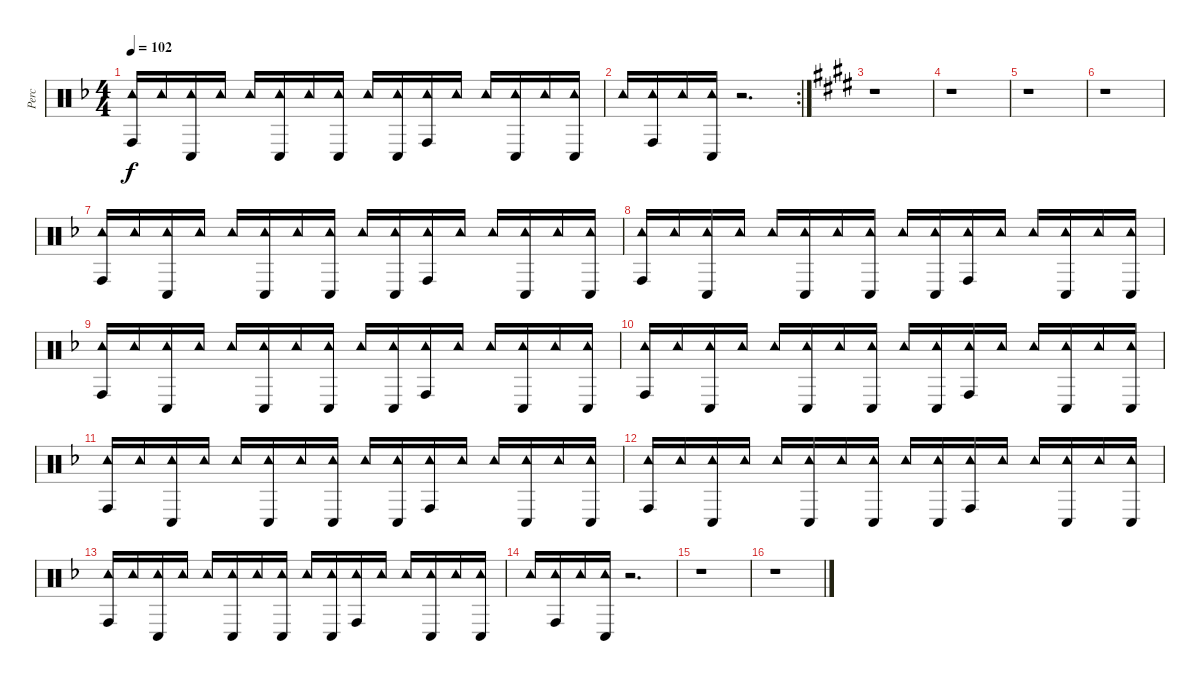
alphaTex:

\track ("Perc" "Perc") {instrument percussion}
\staff {score}
\articulation defaults
\ts (4 4)
\tempo 102
\clef neutral
\ks f
("Tambourine (hit)" "Conga high (hit)").16{dy f} "Tambourine (hit)".16 ("Tambourine (hit)" "Conga low (hit)").16 "Tambourine (hit)".16 "Tambourine (hit)".16 ("Tambourine (hit)" "Conga low (hit)").16 "Tambourine (hit)".16 ("Tambourine (hit)" "Conga low (hit)").16 "Tambourine (hit)".16 ("Tambourine (hit)" "Conga low (hit)").16 ("Tambourine (hit)" "Conga high (hit)").16 "Tambourine (hit)".16 "Tambourine (hit)".16 ("Tambourine (hit)" "Conga low (hit)").16 "Tambourine (hit)".16 ("Tambourine (hit)" "Conga low (hit)").16 |
\rc 2 "Tambourine (hit)".16
("Tambourine (hit)" "Conga high (hit)").16 "Tambourine (hit)".16 ("Tambourine (hit)" "Conga low (hit)").16 r.2{d} |
\ks e
r.1 |
r.1 |
r.1 |
r.1 |
\ks f
("Tambourine (hit)" "Conga high (hit)").16 "Tambourine (hit)".16 ("Tambourine (hit)" "Conga low (hit)").16 "Tambourine (hit)".16 "Tambourine (hit)".16 ("Tambourine (hit)" "Conga low (hit)").16 "Tambourine (hit)".16 ("Tambourine (hit)" "Conga low (hit)").16 "Tambourine (hit)".16 ("Tambourine (hit)" "Conga low (hit)").16 ("Tambourine (hit)" "Conga high (hit)").16 "Tambourine (hit)".16 "Tambourine (hit)".16 ("Tambourine (hit)" "Conga low (hit)").16 "Tambourine (hit)".16 ("Tambourine (hit)" "Conga low (hit)").16 |
("Tambourine (hit)" "Conga high (hit)").16 "Tambourine (hit)".16 ("Tambourine (hit)" "Conga low (hit)").16 "Tambourine (hit)".16 "Tambourine (hit)".16 ("Tambourine (hit)" "Conga low (hit)").16 "Tambourine (hit)".16 ("Tambourine (hit)" "Conga low (hit)").16 "Tambourine (hit)".16 ("Tambourine (hit)" "Conga low (hit)").16 ("Tambourine (hit)" "Conga high (hit)").16 "Tambourine (hit)".16 "Tambourine (hit)".16 ("Tambourine (hit)" "Conga low (hit)").16 "Tambourine (hit)".16 ("Tambourine (hit)" "Conga low (hit)").16 |
("Tambourine (hit)" "Conga high (hit)").16 "Tambourine (hit)".16 ("Tambourine (hit)" "Conga low (hit)").16 "Tambourine (hit)".16 "Tambourine (hit)".16 ("Tambourine (hit)" "Conga low (hit)").16 "Tambourine (hit)".16 ("Tambourine (hit)" "Conga low (hit)").16 "Tambourine (hit)".16 ("Tambourine (hit)" "Conga low (hit)").16 ("Tambourine (hit)" "Conga high (hit)").16 "Tambourine (hit)".16 "Tambourine (hit)".16 ("Tambourine (hit)" "Conga low (hit)").16 "Tambourine (hit)".16 ("Tambourine (hit)" "Conga low (hit)").16 |
("Tambourine (hit)" "Conga high (hit)").16 "Tambourine (hit)".16 ("Tambourine (hit)" "Conga low (hit)").16 "Tambourine (hit)".16 "Tambourine (hit)".16 ("Tambourine (hit)" "Conga low (hit)").16 "Tambourine (hit)".16 ("Tambourine (hit)" "Conga low (hit)").16 "Tambourine (hit)".16 ("Tambourine (hit)" "Conga low (hit)").16 ("Tambourine (hit)" "Conga high (hit)").16 "Tambourine (hit)".16 "Tambourine (hit)".16 ("Tambourine (hit)" "Conga low (hit)").16 "Tambourine (hit)".16 ("Tambourine (hit)" "Conga low (hit)").16 |
("Tambourine (hit)" "Conga high (hit)").16 "Tambourine (hit)".16 ("Tambourine (hit)" "Conga low (hit)").16 "Tambourine (hit)".16 "Tambourine (hit)".16 ("Tambourine (hit)" "Conga low (hit)").16 "Tambourine (hit)".16 ("Tambourine (hit)" "Conga low (hit)").16 "Tambourine (hit)".16 ("Tambourine (hit)" "Conga low (hit)").16 ("Tambourine (hit)" "Conga high (hit)").16 "Tambourine (hit)".16 "Tambourine (hit)".16 ("Tambourine (hit)" "Conga low (hit)").16 "Tambourine (hit)".16 ("Tambourine (hit)" "Conga low (hit)").16 |
("Tambourine (hit)" "Conga high (hit)").16 "Tambourine (hit)".16 ("Tambourine (hit)" "Conga low (hit)").16 "Tambourine (hit)".16 "Tambourine (hit)".16 ("Tambourine (hit)" "Conga low (hit)").16 "Tambourine (hit)".16 ("Tambourine (hit)" "Conga low (hit)").16 "Tambourine (hit)".16 ("Tambourine (hit)" "Conga low (hit)").16 ("Tambourine (hit)" "Conga high (hit)").16 "Tambourine (hit)".16 "Tambourine (hit)".16 ("Tambourine (hit)" "Conga low (hit)").16 "Tambourine (hit)".16 ("Tambourine (hit)" "Conga low (hit)").16 |
("Tambourine (hit)" "Conga high (hit)").16 "Tambourine (hit)".16 ("Tambourine (hit)" "Conga low (hit)").16 "Tambourine (hit)".16 "Tambourine (hit)".16 ("Tambourine (hit)" "Conga low (hit)").16 "Tambourine (hit)".16 ("Tambourine (hit)" "Conga low (hit)").16 "Tambourine (hit)".16 ("Tambourine (hit)" "Conga low (hit)").16 ("Tambourine (hit)" "Conga high (hit)").16 "Tambourine (hit)".16 "Tambourine (hit)".16 ("Tambourine (hit)" "Conga low (hit)").16 "Tambourine (hit)".16 ("Tambourine (hit)" "Conga low (hit)").16 |
"Tambourine (hit)".16 ("Tambourine (hit)" "Conga high (hit)").16 "Tambourine (hit)".16 ("Tambourine (hit)" "Conga low (hit)").16 r.2{d} |
r.1 |
r.1
